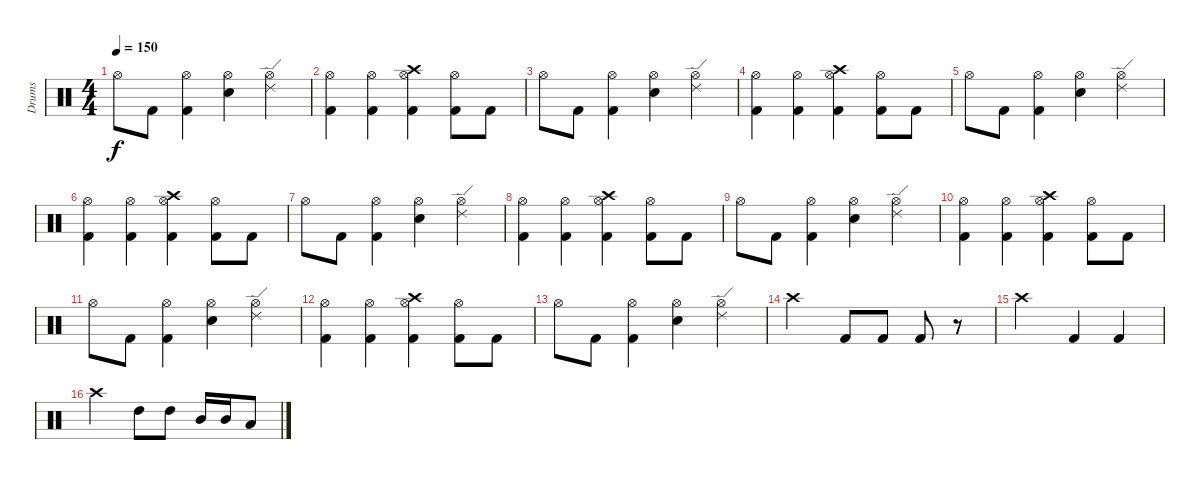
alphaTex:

\track ("Drums" "Drums") {instrument percussion}
\staff {score}
\articulation defaults
\ts (4 4)
\tempo 150
\clef neutral
\ks c "Hi-Hat (open)".8{dy f} "Kick (hit) 2".8
("Hi-Hat (open)" "Kick (hit) 2").4 ("Hi-Hat (open)" "Snare (hit) 2").4 ("Ride (edge) 2" "Hi-Hat (open)").4 |
("Hi-Hat (open)" "Kick (hit) 2").4 ("Hi-Hat (open)" "Kick (hit) 2").4 ("Crash high (hit)" "Hi-Hat (open)" "Kick (hit) 2").4 ("Hi-Hat (open)" "Kick (hit) 2").8 "Kick (hit) 2".8 |
"Hi-Hat (open)".8 "Kick (hit) 2".8 ("Hi-Hat (open)" "Kick (hit) 2").4 ("Hi-Hat (open)" "Snare (hit) 2").4 ("Ride (edge) 2" "Hi-Hat (open)").4 |
("Hi-Hat (open)" "Kick (hit) 2").4 ("Hi-Hat (open)" "Kick (hit) 2").4 ("Crash high (hit)" "Hi-Hat (open)" "Kick (hit) 2").4 ("Hi-Hat (open)" "Kick (hit) 2").8 "Kick (hit) 2".8 |
"Hi-Hat (open)".8 "Kick (hit) 2".8 ("Hi-Hat (open)" "Kick (hit) 2").4 ("Hi-Hat (open)" "Snare (hit) 2").4 ("Ride (edge) 2" "Hi-Hat (open)").4 |
("Hi-Hat (open)" "Kick (hit) 2").4 ("Hi-Hat (open)" "Kick (hit) 2").4 ("Crash high (hit)" "Hi-Hat (open)" "Kick (hit) 2").4 ("Hi-Hat (open)" "Kick (hit) 2").8 "Kick (hit) 2".8 |
"Hi-Hat (open)".8 "Kick (hit) 2".8 ("Hi-Hat (open)" "Kick (hit) 2").4 ("Hi-Hat (open)" "Snare (hit) 2").4 ("Ride (edge) 2" "Hi-Hat (open)").4 |
("Hi-Hat (open)" "Kick (hit) 2").4 ("Hi-Hat (open)" "Kick (hit) 2").4 ("Crash high (hit)" "Hi-Hat (open)" "Kick (hit) 2").4 ("Hi-Hat (open)" "Kick (hit) 2").8 "Kick (hit) 2".8 |
"Hi-Hat (open)".8 "Kick (hit) 2".8 ("Hi-Hat (open)" "Kick (hit) 2").4 ("Hi-Hat (open)" "Snare (hit) 2").4 ("Ride (edge) 2" "Hi-Hat (open)").4 |
("Hi-Hat (open)" "Kick (hit) 2").4 ("Hi-Hat (open)" "Kick (hit) 2").4 ("Crash high (hit)" "Hi-Hat (open)" "Kick (hit) 2").4 ("Hi-Hat (open)" "Kick (hit) 2").8 "Kick (hit) 2".8 |
"Hi-Hat (open)".8 "Kick (hit) 2".8 ("Hi-Hat (open)" "Kick (hit) 2").4 ("Hi-Hat (open)" "Snare (hit) 2").4 ("Ride (edge) 2" "Hi-Hat (open)").4 |
("Hi-Hat (open)" "Kick (hit) 2").4 ("Hi-Hat (open)" "Kick (hit) 2").4 ("Crash high (hit)" "Hi-Hat (open)" "Kick (hit) 2").4 ("Hi-Hat (open)" "Kick (hit) 2").8 "Kick (hit) 2".8 |
"Hi-Hat (open)".8 "Kick (hit) 2".8 ("Hi-Hat (open)" "Kick (hit) 2").4 ("Hi-Hat (open)" "Snare (hit) 2").4 ("Ride (edge) 2" "Hi-Hat (open)").4 |
"Crash high (hit)".2 "Kick (hit) 2".8 "Kick (hit) 2".8 "Kick (hit) 2".8 r.8 |
"Crash high (hit)".2 "Kick (hit) 2".4 "Kick (hit) 2".4 |
"Crash high (hit)".2 "High Tom (hit)".8 "High Tom (hit)".8 "Mid Tom (hit)".16 "Mid Tom (hit)".16 "Low Tom (hit)".8
